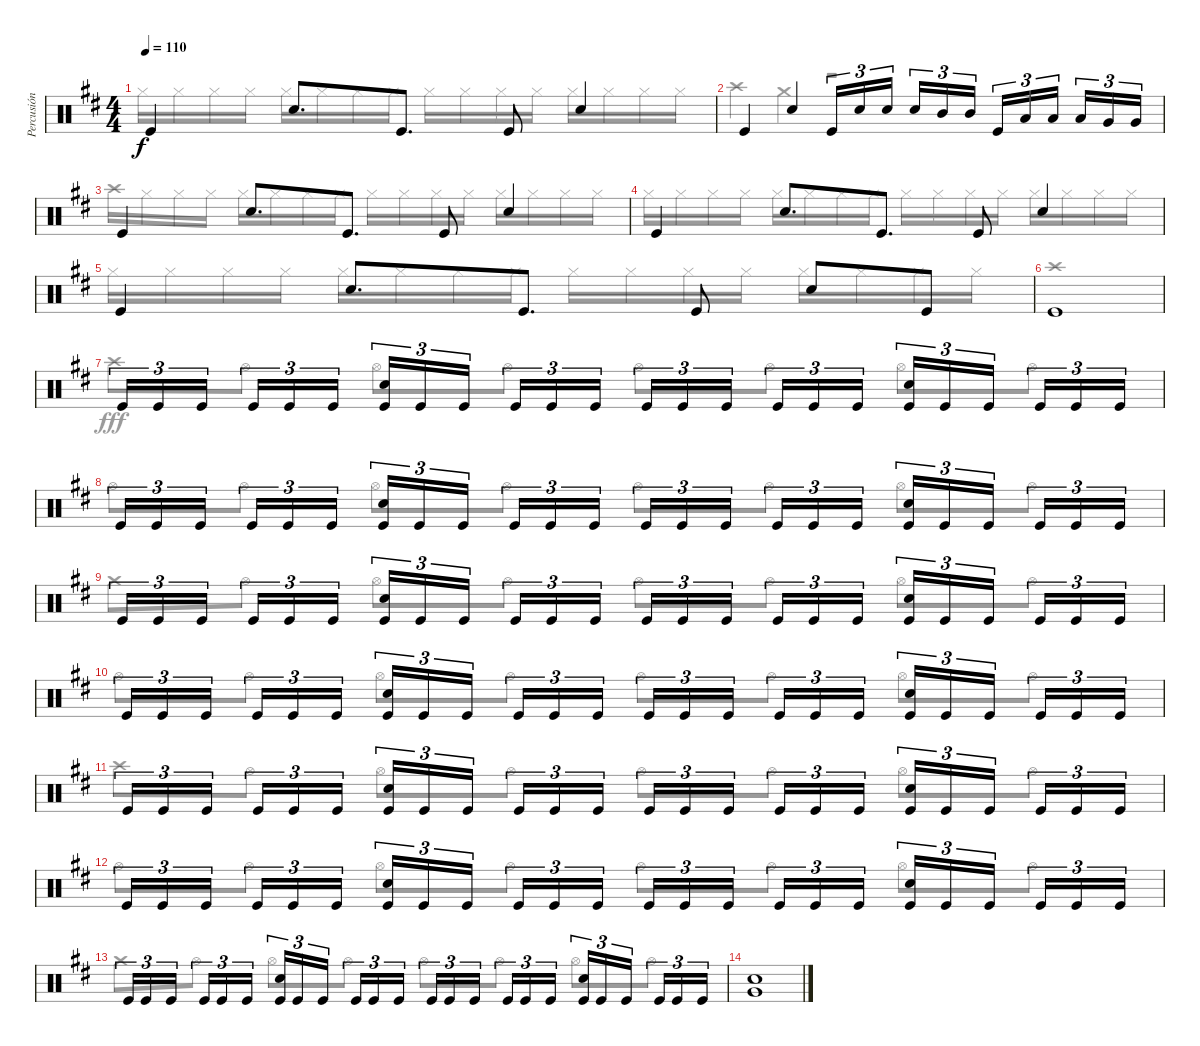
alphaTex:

\track ("Percusión" "Percusión") {instrument percussion}
\staff {score}
\articulation defaults
\voice
\ts (4 4)
\tempo 110
\clef neutral
\ks bminor "Kick (hit)".4{dy f} "Snare (hit) 2".8{d} "Kick (hit)".8{d} "Kick (hit)".8 "Snare (hit) 2".4
|
"Kick (hit)".4 "Snare (hit) 2".4 "Kick (hit)".16{tu (3 2)} "Snare (hit) 2".16{tu (3 2)} "Snare (hit) 2".16{tu (3 2) beam splitsecondary} "Snare (hit) 2".16{tu (3 2)} "Mid Tom (hit)".16{tu (3 2)} "Mid Tom (hit)".16{tu (3 2)} "Kick (hit)".16{tu (3 2)} "Low Tom (hit)".16{tu (3 2)} "Low Tom (hit)".16{tu (3 2) beam splitsecondary} "Low Tom (hit)".16{tu (3 2)} "Very Low Tom (hit)".16{tu (3 2)} "Very Low Tom (hit)".16{tu (3 2)} |
"Kick (hit)".4 "Snare (hit) 2".8{d} "Kick (hit)".8{d} "Kick (hit)".8 "Snare (hit) 2".4 |
"Kick (hit)".4 "Snare (hit) 2".8{d} "Kick (hit)".8{d} "Kick (hit)".8 "Snare (hit) 2".4 |
"Kick (hit)".4 "Snare (hit) 2".8{d} "Kick (hit)".8{d} "Kick (hit)".8 "Snare (hit) 2".8 "Kick (hit)".8 |
"Kick (hit)".1 |
"Kick (hit)".16{tu (3 2)} "Kick (hit)".16{tu (3 2)} "Kick (hit)".16{tu (3 2) beam splitsecondary} "Kick (hit)".16{tu (3 2)} "Kick (hit)".16{tu (3 2)} "Kick (hit)".16{tu (3 2)} ("Snare (hit) 2" "Kick (hit)").16{tu (3 2)} "Kick (hit)".16{tu (3 2)} "Kick (hit)".16{tu (3 2) beam splitsecondary} "Kick (hit)".16{tu (3 2)} "Kick (hit)".16{tu (3 2)} "Kick (hit)".16{tu (3 2)} "Kick (hit)".16{tu (3 2)} "Kick (hit)".16{tu (3 2)} "Kick (hit)".16{tu (3 2) beam splitsecondary} "Kick (hit)".16{tu (3 2)} "Kick (hit)".16{tu (3 2)} "Kick (hit)".16{tu (3 2)} ("Snare (hit) 2" "Kick (hit)").16{tu (3 2)} "Kick (hit)".16{tu (3 2)} "Kick (hit)".16{tu (3 2) beam splitsecondary} "Kick (hit)".16{tu (3 2)} "Kick (hit)".16{tu (3 2)} "Kick (hit)".16{tu (3 2)} |
"Kick (hit)".16{tu (3 2)} "Kick (hit)".16{tu (3 2)} "Kick (hit)".16{tu (3 2) beam splitsecondary} "Kick (hit)".16{tu (3 2)} "Kick (hit)".16{tu (3 2)} "Kick (hit)".16{tu (3 2)} ("Snare (hit) 2" "Kick (hit)").16{tu (3 2)} "Kick (hit)".16{tu (3 2)} "Kick (hit)".16{tu (3 2) beam splitsecondary} "Kick (hit)".16{tu (3 2)} "Kick (hit)".16{tu (3 2)} "Kick (hit)".16{tu (3 2)} "Kick (hit)".16{tu (3 2)} "Kick (hit)".16{tu (3 2)} "Kick (hit)".16{tu (3 2) beam splitsecondary} "Kick (hit)".16{tu (3 2)} "Kick (hit)".16{tu (3 2)} "Kick (hit)".16{tu (3 2)} ("Snare (hit) 2" "Kick (hit)").16{tu (3 2)} "Kick (hit)".16{tu (3 2)} "Kick (hit)".16{tu (3 2) beam splitsecondary} "Kick (hit)".16{tu (3 2)} "Kick (hit)".16{tu (3 2)} "Kick (hit)".16{tu (3 2)} |
"Kick (hit)".16{tu (3 2)} "Kick (hit)".16{tu (3 2)} "Kick (hit)".16{tu (3 2) beam splitsecondary} "Kick (hit)".16{tu (3 2)} "Kick (hit)".16{tu (3 2)} "Kick (hit)".16{tu (3 2)} ("Snare (hit) 2" "Kick (hit)").16{tu (3 2)} "Kick (hit)".16{tu (3 2)} "Kick (hit)".16{tu (3 2) beam splitsecondary} "Kick (hit)".16{tu (3 2)} "Kick (hit)".16{tu (3 2)} "Kick (hit)".16{tu (3 2)} "Kick (hit)".16{tu (3 2)} "Kick (hit)".16{tu (3 2)} "Kick (hit)".16{tu (3 2) beam splitsecondary} "Kick (hit)".16{tu (3 2)} "Kick (hit)".16{tu (3 2)} "Kick (hit)".16{tu (3 2)} ("Snare (hit) 2" "Kick (hit)").16{tu (3 2)} "Kick (hit)".16{tu (3 2)} "Kick (hit)".16{tu (3 2) beam splitsecondary} "Kick (hit)".16{tu (3 2)} "Kick (hit)".16{tu (3 2)} "Kick (hit)".16{tu (3 2)} |
"Kick (hit)".16{tu (3 2)} "Kick (hit)".16{tu (3 2)} "Kick (hit)".16{tu (3 2) beam splitsecondary} "Kick (hit)".16{tu (3 2)} "Kick (hit)".16{tu (3 2)} "Kick (hit)".16{tu (3 2)} ("Snare (hit) 2" "Kick (hit)").16{tu (3 2)} "Kick (hit)".16{tu (3 2)} "Kick (hit)".16{tu (3 2) beam splitsecondary} "Kick (hit)".16{tu (3 2)} "Kick (hit)".16{tu (3 2)} "Kick (hit)".16{tu (3 2)} "Kick (hit)".16{tu (3 2)} "Kick (hit)".16{tu (3 2)} "Kick (hit)".16{tu (3 2) beam splitsecondary} "Kick (hit)".16{tu (3 2)} "Kick (hit)".16{tu (3 2)} "Kick (hit)".16{tu (3 2)} ("Snare (hit) 2" "Kick (hit)").16{tu (3 2)} "Kick (hit)".16{tu (3 2)} "Kick (hit)".16{tu (3 2) beam splitsecondary} "Kick (hit)".16{tu (3 2)} "Kick (hit)".16{tu (3 2)} "Kick (hit)".16{tu (3 2)} |
"Kick (hit)".16{tu (3 2)} "Kick (hit)".16{tu (3 2)} "Kick (hit)".16{tu (3 2) beam splitsecondary} "Kick (hit)".16{tu (3 2)} "Kick (hit)".16{tu (3 2)} "Kick (hit)".16{tu (3 2)} ("Snare (hit) 2" "Kick (hit)").16{tu (3 2)} "Kick (hit)".16{tu (3 2)} "Kick (hit)".16{tu (3 2) beam splitsecondary} "Kick (hit)".16{tu (3 2)} "Kick (hit)".16{tu (3 2)} "Kick (hit)".16{tu (3 2)} "Kick (hit)".16{tu (3 2)} "Kick (hit)".16{tu (3 2)} "Kick (hit)".16{tu (3 2) beam splitsecondary} "Kick (hit)".16{tu (3 2)} "Kick (hit)".16{tu (3 2)} "Kick (hit)".16{tu (3 2)} ("Snare (hit) 2" "Kick (hit)").16{tu (3 2)} "Kick (hit)".16{tu (3 2)} "Kick (hit)".16{tu (3 2) beam splitsecondary} "Kick (hit)".16{tu (3 2)} "Kick (hit)".16{tu (3 2)} "Kick (hit)".16{tu (3 2)} |
"Kick (hit)".16{tu (3 2)} "Kick (hit)".16{tu (3 2)} "Kick (hit)".16{tu (3 2) beam splitsecondary} "Kick (hit)".16{tu (3 2)} "Kick (hit)".16{tu (3 2)} "Kick (hit)".16{tu (3 2)} ("Snare (hit) 2" "Kick (hit)").16{tu (3 2)} "Kick (hit)".16{tu (3 2)} "Kick (hit)".16{tu (3 2) beam splitsecondary} "Kick (hit)".16{tu (3 2)} "Kick (hit)".16{tu (3 2)} "Kick (hit)".16{tu (3 2)} "Kick (hit)".16{tu (3 2)} "Kick (hit)".16{tu (3 2)} "Kick (hit)".16{tu (3 2) beam splitsecondary} "Kick (hit)".16{tu (3 2)} "Kick (hit)".16{tu (3 2)} "Kick (hit)".16{tu (3 2)} ("Snare (hit) 2" "Kick (hit)").16{tu (3 2)} "Kick (hit)".16{tu (3 2)} "Kick (hit)".16{tu (3 2) beam splitsecondary} "Kick (hit)".16{tu (3 2)} "Kick (hit)".16{tu (3 2)} "Kick (hit)".16{tu (3 2)} |
"Kick (hit)".16{tu (3 2)} "Kick (hit)".16{tu (3 2)} "Kick (hit)".16{tu (3 2) beam splitsecondary} "Kick (hit)".16{tu (3 2)} "Kick (hit)".16{tu (3 2)} "Kick (hit)".16{tu (3 2)} ("Snare (hit) 2" "Kick (hit)").16{tu (3 2)} "Kick (hit)".16{tu (3 2)} "Kick (hit)".16{tu (3 2) beam splitsecondary} "Kick (hit)".16{tu (3 2)} "Kick (hit)".16{tu (3 2)} "Kick (hit)".16{tu (3 2)} "Kick (hit)".16{tu (3 2)} "Kick (hit)".16{tu (3 2)} "Kick (hit)".16{tu (3 2) beam splitsecondary} "Kick (hit)".16{tu (3 2)} "Kick (hit)".16{tu (3 2)} "Kick (hit)".16{tu (3 2)} ("Snare (hit) 2" "Kick (hit)").16{tu (3 2)} "Kick (hit)".16{tu (3 2)} "Kick (hit)".16{tu (3 2) beam splitsecondary} "Kick (hit)".16{tu (3 2)} "Kick (hit)".16{tu (3 2)} "Kick (hit)".16{tu (3 2)} |
("Snare (hit) 2" "Very Low Tom (hit)").1 |
|
\voice
\clef neutral
\ottava regular
\simile none
\ks bminor "Hi-Hat (closed)".16{dy f} "Hi-Hat (closed)".16 "Hi-Hat (closed)".16 "Hi-Hat (closed)".16 "Hi-Hat (closed)".16 "Hi-Hat (closed)".16 "Hi-Hat (closed)".16 "Hi-Hat (closed)".16 "Hi-Hat (closed)".16 "Hi-Hat (closed)".16 "Hi-Hat (closed)".16 "Hi-Hat (closed)".16 "Hi-Hat (closed)".16 "Hi-Hat (closed)".16 "Hi-Hat (closed)".16 "Hi-Hat (closed)".16
|
"Crash high (hit)".4 "Crash medium (hit)".4 r.2 |
"Crash high (hit)".16 "Hi-Hat (closed)".16 "Hi-Hat (closed)".16 "Hi-Hat (closed)".16 "Hi-Hat (closed)".16 "Hi-Hat (closed)".16 "Hi-Hat (closed)".16 "Hi-Hat (closed)".16 "Hi-Hat (closed)".16 "Hi-Hat (closed)".16 "Hi-Hat (closed)".16 "Hi-Hat (closed)".16 "Hi-Hat (closed)".16 "Hi-Hat (closed)".16 "Hi-Hat (closed)".16 "Hi-Hat (closed)".16 |
"Hi-Hat (closed)".16 "Hi-Hat (closed)".16 "Hi-Hat (closed)".16 "Hi-Hat (closed)".16 "Hi-Hat (closed)".16 "Hi-Hat (closed)".16 "Hi-Hat (closed)".16 "Hi-Hat (closed)".16 "Hi-Hat (closed)".16 "Hi-Hat (closed)".16 "Hi-Hat (closed)".16 "Hi-Hat (closed)".16 "Hi-Hat (closed)".16 "Hi-Hat (closed)".16 "Hi-Hat (closed)".16 "Hi-Hat (closed)".16 |
"Hi-Hat (closed)".16 "Hi-Hat (closed)".16 "Hi-Hat (closed)".16 "Hi-Hat (closed)".16 "Hi-Hat (closed)".16 "Hi-Hat (closed)".16 "Hi-Hat (closed)".16 "Hi-Hat (closed)".16 "Hi-Hat (closed)".16 "Hi-Hat (closed)".16 "Hi-Hat (closed)".16 "Hi-Hat (closed)".16 "Hi-Hat (closed)".16 "Hi-Hat (closed)".16 "Hi-Hat (closed)".16 "Hi-Hat (closed)".16 |
"Crash high (hit)".1 |
"Crash high (hit)".8{dy fff} "Hi-Hat (open)".8 "Hi-Hat (open)".8 "Hi-Hat (open)".8 "Hi-Hat (open)".8 "Hi-Hat (open)".8 "Hi-Hat (open)".8 "Hi-Hat (open)".8 |
"Hi-Hat (open)".8 "Hi-Hat (open)".8 "Hi-Hat (open)".8 "Hi-Hat (open)".8 "Hi-Hat (open)".8 "Hi-Hat (open)".8 "Hi-Hat (open)".8 "Hi-Hat (open)".8 |
"Crash medium (hit)".8 "Hi-Hat (open)".8 "Hi-Hat (open)".8 "Hi-Hat (open)".8 "Hi-Hat (open)".8 "Hi-Hat (open)".8 "Hi-Hat (open)".8 "Hi-Hat (open)".8 |
"Hi-Hat (open)".8 "Hi-Hat (open)".8 "Hi-Hat (open)".8 "Hi-Hat (open)".8 "Hi-Hat (open)".8 "Hi-Hat (open)".8 "Hi-Hat (open)".8 "Hi-Hat (open)".8 |
"Crash high (hit)".8 "Hi-Hat (open)".8 "Hi-Hat (open)".8 "Hi-Hat (open)".8 "Hi-Hat (open)".8 "Hi-Hat (open)".8 "Hi-Hat (open)".8 "Hi-Hat (open)".8 |
"Hi-Hat (open)".8 "Hi-Hat (open)".8 "Hi-Hat (open)".8 "Hi-Hat (open)".8 "Hi-Hat (open)".8 "Hi-Hat (open)".8 "Hi-Hat (open)".8 "Hi-Hat (open)".8 |
"Crash medium (hit)".8 "Hi-Hat (open)".8 "Hi-Hat (open)".8 "Hi-Hat (open)".8 "Hi-Hat (open)".8 "Hi-Hat (open)".8 "Hi-Hat (open)".8 "Hi-Hat (open)".8 |
|
|
